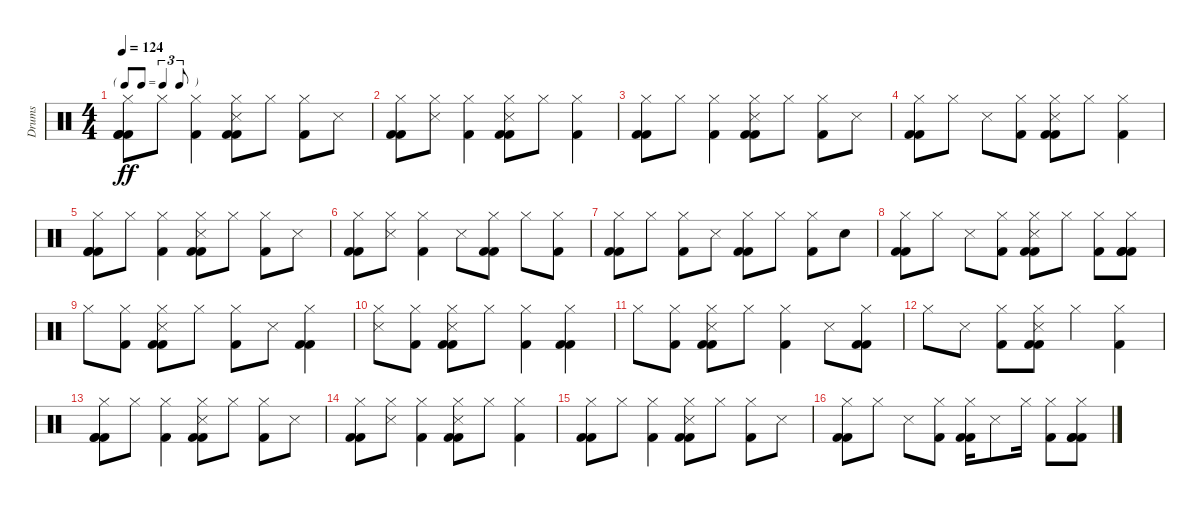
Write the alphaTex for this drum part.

\track ("Drums" "Drums") {instrument percussion}
\staff {score}
\articulation defaults
\ts (4 4)
\tf triplet8th
\tempo 124
\clef neutral
\ks c
("Kick (hit) 2" "Kick (hit) 2" "Kick (hit) 2" "Hi-Hat (closed)").8{dy ff} "Hi-Hat (closed)".8 ("Kick (hit) 2" "Hi-Hat (closed)").4 ("Kick (hit) 2" "Kick (hit) 2" "Hi-Hat (closed)" "Snare (side stick) 3").8 "Hi-Hat (closed)".8 ("Kick (hit) 2" "Hi-Hat (closed)").8 "Snare (side stick) 3".8 |
("Kick (hit) 2" "Kick (hit) 2" "Hi-Hat (closed)").8 ("Snare (side stick) 3" "Hi-Hat (closed)").8 ("Kick (hit) 2" "Hi-Hat (closed)").4 ("Snare (side stick) 3" "Kick (hit) 2" "Kick (hit) 2" "Hi-Hat (closed)").8 "Hi-Hat (closed)".8 ("Kick (hit) 2" "Hi-Hat (closed)").4 |
("Kick (hit) 2" "Kick (hit) 2" "Hi-Hat (closed)").8 "Hi-Hat (closed)".8 ("Kick (hit) 2" "Hi-Hat (closed)").4 ("Snare (side stick) 3" "Kick (hit) 2" "Kick (hit) 2" "Hi-Hat (closed)").8 "Hi-Hat (closed)".8 ("Kick (hit) 2" "Hi-Hat (closed)").8 "Snare (side stick) 3".8 |
("Kick (hit) 2" "Kick (hit) 2" "Hi-Hat (closed)").8 "Hi-Hat (closed)".8 "Snare (side stick) 3".8 ("Kick (hit) 2" "Hi-Hat (closed)").8 ("Kick (hit) 2" "Kick (hit) 2" "Hi-Hat (closed)" "Snare (side stick) 3").8 "Hi-Hat (closed)".8 ("Kick (hit) 2" "Hi-Hat (closed)").4 |
("Kick (hit) 2" "Kick (hit) 2" "Kick (hit) 2" "Hi-Hat (closed)").8 "Hi-Hat (closed)".8 ("Kick (hit) 2" "Hi-Hat (closed)").4 ("Kick (hit) 2" "Kick (hit) 2" "Hi-Hat (closed)" "Snare (side stick) 3").8 "Hi-Hat (closed)".8 ("Kick (hit) 2" "Hi-Hat (closed)").8 "Snare (side stick) 3".8 |
("Kick (hit) 2" "Kick (hit) 2" "Hi-Hat (closed)").8 ("Snare (side stick) 3" "Hi-Hat (closed)").8 ("Kick (hit) 2" "Hi-Hat (closed)").4 "Snare (side stick) 3".8 ("Kick (hit) 2" "Kick (hit) 2" "Hi-Hat (closed)").8 "Hi-Hat (closed)".8 ("Kick (hit) 2" "Hi-Hat (closed)").8 |
("Kick (hit) 2" "Kick (hit) 2" "Hi-Hat (closed)").8 "Hi-Hat (closed)".8 ("Kick (hit) 2" "Hi-Hat (closed)").8 "Snare (side stick) 3".8 ("Kick (hit) 2" "Kick (hit) 2" "Hi-Hat (closed)").8 "Hi-Hat (closed)".8 ("Kick (hit) 2" "Hi-Hat (closed)").8 "Snare (hit)".8 |
("Kick (hit) 2" "Kick (hit) 2" "Hi-Hat (closed)").8 "Hi-Hat (closed)".8 "Snare (side stick) 3".8 ("Kick (hit) 2" "Hi-Hat (closed)").8 ("Kick (hit) 2" "Kick (hit) 2" "Hi-Hat (closed)" "Snare (side stick) 3").8 "Hi-Hat (closed)".8 ("Kick (hit) 2" "Hi-Hat (closed)").8 ("Kick (hit) 2" "Kick (hit) 2" "Kick (hit) 2" "Hi-Hat (closed)").8 |
"Hi-Hat (closed)".8 ("Kick (hit) 2" "Hi-Hat (closed)").8 ("Kick (hit) 2" "Kick (hit) 2" "Hi-Hat (closed)" "Snare (side stick) 3").8 "Hi-Hat (closed)".8 ("Kick (hit) 2" "Hi-Hat (closed)").8 "Snare (side stick) 3".8 ("Kick (hit) 2" "Kick (hit) 2" "Hi-Hat (closed)").4 |
("Snare (side stick) 3" "Hi-Hat (closed)").8 ("Kick (hit) 2" "Hi-Hat (closed)").8 ("Snare (side stick) 3" "Kick (hit) 2" "Kick (hit) 2" "Hi-Hat (closed)").8 "Hi-Hat (closed)".8 ("Kick (hit) 2" "Hi-Hat (closed)").4 ("Kick (hit) 2" "Kick (hit) 2" "Hi-Hat (closed)").4 |
"Hi-Hat (closed)".8 ("Kick (hit) 2" "Hi-Hat (closed)").8 ("Snare (side stick) 3" "Kick (hit) 2" "Kick (hit) 2" "Hi-Hat (closed)").8 "Hi-Hat (closed)".8 ("Kick (hit) 2" "Hi-Hat (closed)").4 "Snare (side stick) 3".8 ("Kick (hit) 2" "Kick (hit) 2" "Hi-Hat (closed)").8 |
"Hi-Hat (closed)".8 "Snare (side stick) 3".8 ("Kick (hit) 2" "Hi-Hat (closed)").8 ("Kick (hit) 2" "Kick (hit) 2" "Hi-Hat (closed)" "Snare (side stick) 3").8 "Hi-Hat (closed)".4 ("Kick (hit) 2" "Hi-Hat (closed)").4 |
("Kick (hit) 2" "Kick (hit) 2" "Kick (hit) 2" "Hi-Hat (closed)").8 "Hi-Hat (closed)".8 ("Kick (hit) 2" "Hi-Hat (closed)").4 ("Kick (hit) 2" "Kick (hit) 2" "Hi-Hat (closed)" "Snare (side stick) 3").8 "Hi-Hat (closed)".8 ("Kick (hit) 2" "Hi-Hat (closed)").8 "Snare (side stick) 3".8 |
("Kick (hit) 2" "Kick (hit) 2" "Hi-Hat (closed)").8 ("Snare (side stick) 3" "Hi-Hat (closed)").8 ("Kick (hit) 2" "Hi-Hat (closed)").4 ("Snare (side stick) 3" "Kick (hit) 2" "Kick (hit) 2" "Hi-Hat (closed)").8 "Hi-Hat (closed)".8 ("Kick (hit) 2" "Hi-Hat (closed)").4 |
("Kick (hit) 2" "Kick (hit) 2" "Hi-Hat (closed)").8 "Hi-Hat (closed)".8 ("Kick (hit) 2" "Hi-Hat (closed)").4 ("Snare (side stick) 3" "Kick (hit) 2" "Kick (hit) 2" "Hi-Hat (closed)").8 "Hi-Hat (closed)".8 ("Kick (hit) 2" "Hi-Hat (closed)").8 "Snare (side stick) 3".8 |
("Kick (hit) 2" "Kick (hit) 2" "Hi-Hat (closed)").8 "Hi-Hat (closed)".8 "Snare (side stick) 3".8 ("Kick (hit) 2" "Hi-Hat (closed)").8 ("Kick (hit) 2" "Kick (hit) 2" "Hi-Hat (closed)").16 "Snare (side stick) 3".8 "Hi-Hat (closed)".16 ("Kick (hit) 2" "Hi-Hat (closed)").8 ("Kick (hit) 2" "Kick (hit) 2" "Kick (hit) 2" "Hi-Hat (closed)").8
